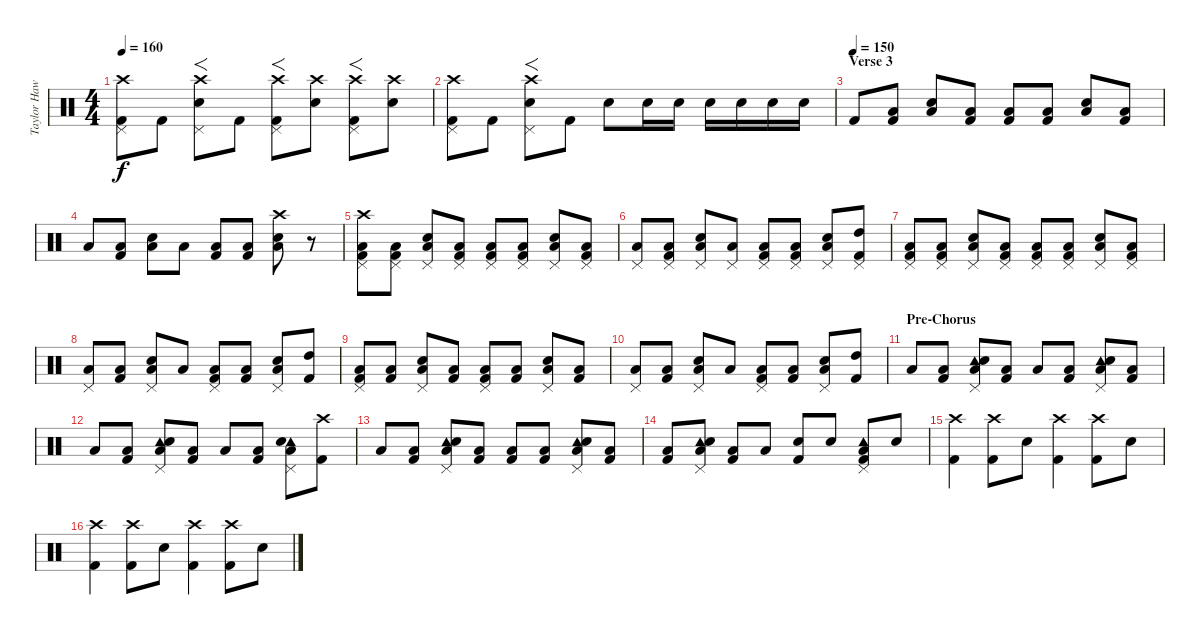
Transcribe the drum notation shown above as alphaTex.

\track ("Taylor Hawkins" "Taylor Haw") {instrument percussion}
\staff {score}
\articulation defaults
\ts (4 4)
\tempo 160
\clef neutral
\ks c
("Crash high (hit)" "Pedal Hi-Hat (hit)" "Kick (hit) 2").8{dy f} "Kick (hit) 2".8 ("Crash high (hit)" "Pedal Hi-Hat (hit)" "Snare (hit) 2").8{f} "Kick (hit) 2".8 ("Crash high (hit)" "Pedal Hi-Hat (hit)" "Kick (hit) 2").8{f} ("Crash high (hit)" "Snare (hit) 2").8 ("Crash high (hit)" "Pedal Hi-Hat (hit)" "Kick (hit) 2").8{f} ("Crash high (hit)" "Snare (hit) 2").8 |
("Crash high (hit)" "Pedal Hi-Hat (hit)" "Kick (hit) 2").8 "Kick (hit) 2".8 ("Crash high (hit)" "Pedal Hi-Hat (hit)" "Snare (hit) 2").8{f} "Kick (hit) 2".8 "Snare (hit) 2".8 "Snare (hit) 2".16 "Snare (hit) 2".16 "Snare (hit) 2".16 "Snare (hit) 2".16 "Snare (hit) 2".16 "Snare (hit) 2".16 |
\section ("" "Verse 3")
\tempo (150)
"Kick (hit) 2".8 ("Low Floor Tom (hit)" "Kick (hit) 2").8 ("Low Floor Tom (hit)" "Snare (hit) 2").8 ("Low Floor Tom (hit)" "Kick (hit) 2").8 ("Low Floor Tom (hit)" "Kick (hit) 2").8 ("Low Floor Tom (hit)" "Kick (hit) 2").8 ("Low Floor Tom (hit)" "Snare (hit) 2").8 ("Low Floor Tom (hit)" "Kick (hit) 2").8 |
"Low Floor Tom (hit)".8 ("Low Floor Tom (hit)" "Kick (hit) 2").8 ("Low Floor Tom (hit)" "Snare (hit) 2").8 "Low Floor Tom (hit)".8 ("Low Floor Tom (hit)" "Kick (hit) 2").8 ("Low Floor Tom (hit)" "Kick (hit) 2").8 ("Crash high (hit)" "Low Floor Tom (hit)" "Snare (hit) 2").8 r.8 |
("Crash high (hit)" "Pedal Hi-Hat (hit)" "Low Floor Tom (hit)" "Kick (hit) 2").8 ("Pedal Hi-Hat (hit)" "Low Floor Tom (hit)" "Kick (hit) 2").8 ("Pedal Hi-Hat (hit)" "Low Floor Tom (hit)" "Snare (hit) 2").8 ("Pedal Hi-Hat (hit)" "Low Floor Tom (hit)" "Kick (hit) 2").8 ("Pedal Hi-Hat (hit)" "Low Floor Tom (hit)" "Kick (hit) 2").8 ("Pedal Hi-Hat (hit)" "Low Floor Tom (hit)" "Kick (hit) 2").8 ("Pedal Hi-Hat (hit)" "Low Floor Tom (hit)" "Snare (hit) 2").8 ("Pedal Hi-Hat (hit)" "Low Floor Tom (hit)" "Kick (hit) 2").8 |
("Pedal Hi-Hat (hit)" "Low Floor Tom (hit)").8 ("Pedal Hi-Hat (hit)" "Low Floor Tom (hit)" "Kick (hit) 2").8 ("Pedal Hi-Hat (hit)" "Low Floor Tom (hit)" "Snare (hit) 2").8 ("Pedal Hi-Hat (hit)" "Low Floor Tom (hit)").8 ("Pedal Hi-Hat (hit)" "Low Floor Tom (hit)" "Kick (hit) 2").8 ("Pedal Hi-Hat (hit)" "Low Floor Tom (hit)" "Kick (hit) 2").8 ("Pedal Hi-Hat (hit)" "Low Floor Tom (hit)" "Snare (hit) 2").8 ("Pedal Hi-Hat (hit)" "High Tom (hit)" "Kick (hit) 2").8 |
("Pedal Hi-Hat (hit)" "Low Floor Tom (hit)" "Kick (hit) 2").8 ("Pedal Hi-Hat (hit)" "Low Floor Tom (hit)" "Kick (hit) 2").8 ("Pedal Hi-Hat (hit)" "Low Floor Tom (hit)" "Snare (hit) 2").8 ("Pedal Hi-Hat (hit)" "Low Floor Tom (hit)" "Kick (hit) 2").8 ("Pedal Hi-Hat (hit)" "Low Floor Tom (hit)" "Kick (hit) 2").8 ("Pedal Hi-Hat (hit)" "Low Floor Tom (hit)" "Kick (hit) 2").8 ("Pedal Hi-Hat (hit)" "Low Floor Tom (hit)" "Snare (hit) 2").8 ("Pedal Hi-Hat (hit)" "Low Floor Tom (hit)" "Kick (hit) 2").8 |
("Pedal Hi-Hat (hit)" "Low Floor Tom (hit)").8 ("Low Floor Tom (hit)" "Kick (hit) 2").8 ("Pedal Hi-Hat (hit)" "Low Floor Tom (hit)" "Snare (hit) 2").8 "Low Floor Tom (hit)".8 ("Pedal Hi-Hat (hit)" "Low Floor Tom (hit)" "Kick (hit) 2").8 ("Low Floor Tom (hit)" "Kick (hit) 2").8 ("Pedal Hi-Hat (hit)" "Low Floor Tom (hit)" "Snare (hit) 2").8 ("High Tom (hit)" "Kick (hit) 2").8 |
("Pedal Hi-Hat (hit)" "Low Floor Tom (hit)" "Kick (hit) 2").8 ("Low Floor Tom (hit)" "Kick (hit) 2").8 ("Pedal Hi-Hat (hit)" "Low Floor Tom (hit)" "Snare (hit) 2").8 ("Low Floor Tom (hit)" "Kick (hit) 2").8 ("Pedal Hi-Hat (hit)" "Low Floor Tom (hit)" "Kick (hit) 2").8 ("Low Floor Tom (hit)" "Kick (hit) 2").8 ("Pedal Hi-Hat (hit)" "Low Floor Tom (hit)" "Snare (hit) 2").8 ("Low Floor Tom (hit)" "Kick (hit) 2").8 |
("Pedal Hi-Hat (hit)" "Low Floor Tom (hit)").8 ("Low Floor Tom (hit)" "Kick (hit) 2").8 ("Pedal Hi-Hat (hit)" "Low Floor Tom (hit)" "Snare (hit) 2").8 "Low Floor Tom (hit)".8 ("Pedal Hi-Hat (hit)" "Low Floor Tom (hit)" "Kick (hit) 2").8 ("Low Floor Tom (hit)" "Kick (hit) 2").8 ("Pedal Hi-Hat (hit)" "Low Floor Tom (hit)" "Snare (hit) 2").8 ("High Tom (hit)" "Kick (hit) 2").8 |
\section ("" "Pre-Chorus")
"Low Floor Tom (hit)".8 ("Low Floor Tom (hit)" "Kick (hit) 2").8 ("Pedal Hi-Hat (hit)" "Tambourine (hit)" "Low Floor Tom (hit)" "Snare (hit) 2").8 ("Low Floor Tom (hit)" "Kick (hit) 2").8 "Low Floor Tom (hit)".8 ("Low Floor Tom (hit)" "Kick (hit) 2").8 ("Pedal Hi-Hat (hit)" "Tambourine (hit)" "Low Floor Tom (hit)" "Snare (hit) 2").8 ("Low Floor Tom (hit)" "Kick (hit) 2").8 |
"Low Floor Tom (hit)".8 ("Low Floor Tom (hit)" "Kick (hit) 2").8 ("Pedal Hi-Hat (hit)" "Tambourine (hit)" "Low Floor Tom (hit)" "Snare (hit) 2").8 ("Low Floor Tom (hit)" "Kick (hit) 2").8 "Low Floor Tom (hit)".8 ("Low Floor Tom (hit)" "Kick (hit) 2").8 ("Pedal Hi-Hat (hit)" "Tambourine (hit)" "Low Floor Tom (hit)" "Snare (hit) 2").8 ("Crash high (hit)" "Kick (hit) 2").8 |
"Low Floor Tom (hit)".8 ("Low Floor Tom (hit)" "Kick (hit) 2").8 ("Pedal Hi-Hat (hit)" "Tambourine (hit)" "Low Floor Tom (hit)" "Snare (hit) 2").8 ("Low Floor Tom (hit)" "Kick (hit) 2").8 ("Low Floor Tom (hit)" "Kick (hit) 2").8 ("Low Floor Tom (hit)" "Kick (hit) 2").8 ("Pedal Hi-Hat (hit)" "Tambourine (hit)" "Low Floor Tom (hit)" "Snare (hit) 2").8 ("Low Floor Tom (hit)" "Kick (hit) 2").8 |
("Low Floor Tom (hit)" "Kick (hit) 2").8 ("Pedal Hi-Hat (hit)" "Tambourine (hit)" "Low Floor Tom (hit)" "Snare (hit) 2").8 ("Low Floor Tom (hit)" "Kick (hit) 2").8 "Low Floor Tom (hit)".8 ("Snare (hit) 2" "Kick (hit) 2").8 "Snare (hit) 2".8 ("Pedal Hi-Hat (hit)" "Tambourine (hit)" "Low Floor Tom (hit)" "Kick (hit) 2").8 "Snare (hit) 2".8 |
("Crash high (hit)" "Kick (hit) 2").4 ("Crash high (hit)" "Kick (hit) 2").8 "Snare (hit) 2".8 ("Crash high (hit)" "Kick (hit) 2").4 ("Crash high (hit)" "Kick (hit) 2").8 "Snare (hit) 2".8 |
("Crash high (hit)" "Kick (hit) 2").4 ("Crash high (hit)" "Kick (hit) 2").8 "Snare (hit) 2".8 ("Crash high (hit)" "Kick (hit) 2").4 ("Crash high (hit)" "Kick (hit) 2").8 "Snare (hit) 2".8
